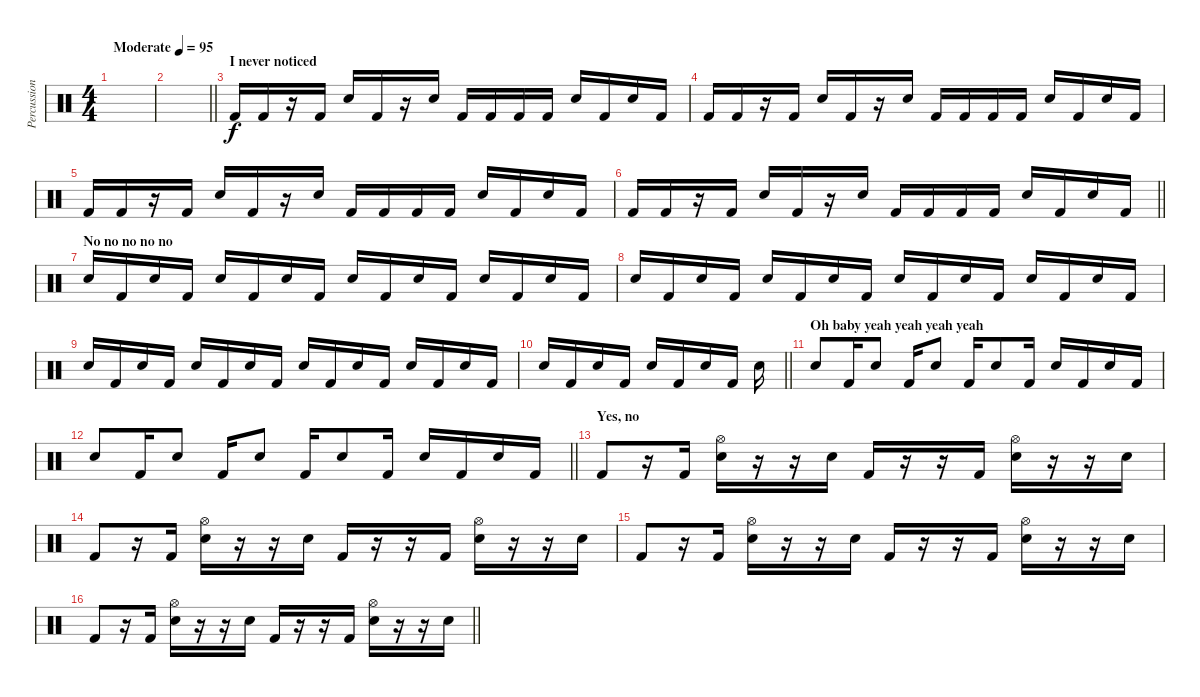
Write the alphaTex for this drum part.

\track ("Percussion" "Percussion") {instrument percussion}
\staff {score}
\articulation defaults
\ts (4 4)
\tempo (95 "Moderate")
\clef neutral
\ks c
|
\barLineRight lightlight
|
\section ("" "I never noticed")
"Kick (hit) 2".16 "Kick (hit) 2".16 r.16 "Kick (hit) 2".16 "Electric Snare (hit)".16 "Kick (hit) 2".16 r.16 "Electric Snare (hit)".16 "Kick (hit) 2".16 "Kick (hit) 2".16 "Kick (hit) 2".16 "Kick (hit) 2".16 "Electric Snare (hit)".16 "Kick (hit) 2".16 "Electric Snare (hit)".16 "Kick (hit) 2".16 |
"Kick (hit) 2".16 "Kick (hit) 2".16 r.16 "Kick (hit) 2".16 "Electric Snare (hit)".16 "Kick (hit) 2".16 r.16 "Electric Snare (hit)".16 "Kick (hit) 2".16 "Kick (hit) 2".16 "Kick (hit) 2".16 "Kick (hit) 2".16 "Electric Snare (hit)".16 "Kick (hit) 2".16 "Electric Snare (hit)".16 "Kick (hit) 2".16 |
"Kick (hit) 2".16 "Kick (hit) 2".16 r.16 "Kick (hit) 2".16 "Electric Snare (hit)".16 "Kick (hit) 2".16 r.16 "Electric Snare (hit)".16 "Kick (hit) 2".16 "Kick (hit) 2".16 "Kick (hit) 2".16 "Kick (hit) 2".16 "Electric Snare (hit)".16 "Kick (hit) 2".16 "Electric Snare (hit)".16 "Kick (hit) 2".16 |
\barLineRight lightlight "Kick (hit) 2".16 "Kick (hit) 2".16
r.16 "Kick (hit) 2".16 "Electric Snare (hit)".16 "Kick (hit) 2".16 r.16 "Electric Snare (hit)".16 "Kick (hit) 2".16 "Kick (hit) 2".16 "Kick (hit) 2".16 "Kick (hit) 2".16 "Electric Snare (hit)".16 "Kick (hit) 2".16 "Electric Snare (hit)".16 "Kick (hit) 2".16 |
\section ("" "No no no no no")
"Electric Snare (hit)".16 "Kick (hit) 2".16 "Electric Snare (hit)".16 "Kick (hit) 2".16 "Electric Snare (hit)".16 "Kick (hit) 2".16 "Electric Snare (hit)".16 "Kick (hit) 2".16 "Electric Snare (hit)".16 "Kick (hit) 2".16 "Electric Snare (hit)".16 "Kick (hit) 2".16 "Electric Snare (hit)".16 "Kick (hit) 2".16 "Electric Snare (hit)".16 "Kick (hit) 2".16 |
"Electric Snare (hit)".16 "Kick (hit) 2".16 "Electric Snare (hit)".16 "Kick (hit) 2".16 "Electric Snare (hit)".16 "Kick (hit) 2".16 "Electric Snare (hit)".16 "Kick (hit) 2".16 "Electric Snare (hit)".16 "Kick (hit) 2".16 "Electric Snare (hit)".16 "Kick (hit) 2".16 "Electric Snare (hit)".16 "Kick (hit) 2".16 "Electric Snare (hit)".16 "Kick (hit) 2".16 |
"Electric Snare (hit)".16 "Kick (hit) 2".16 "Electric Snare (hit)".16 "Kick (hit) 2".16 "Electric Snare (hit)".16 "Kick (hit) 2".16 "Electric Snare (hit)".16 "Kick (hit) 2".16 "Electric Snare (hit)".16 "Kick (hit) 2".16 "Electric Snare (hit)".16 "Kick (hit) 2".16 "Electric Snare (hit)".16 "Kick (hit) 2".16 "Electric Snare (hit)".16 "Kick (hit) 2".16 |
\barLineRight lightlight "Electric Snare (hit)".16 "Kick (hit) 2".16 "Electric Snare (hit)".16 "Kick (hit) 2".16 "Electric Snare (hit)".16 "Kick (hit) 2".16 "Electric Snare (hit)".16 "Kick (hit) 2".16 "Electric Snare (hit)".16
|
\section ("" "Oh baby yeah yeah yeah yeah")
"Electric Snare (hit)".8 "Kick (hit) 2".16 "Electric Snare (hit)".8 "Kick (hit) 2".16 "Electric Snare (hit)".8 "Kick (hit) 2".16 "Electric Snare (hit)".8 "Kick (hit) 2".16 "Electric Snare (hit)".16 "Kick (hit) 2".16 "Electric Snare (hit)".16 "Kick (hit) 2".16 |
\barLineRight lightlight "Electric Snare (hit)".8 "Kick (hit) 2".16 "Electric Snare (hit)".8 "Kick (hit) 2".16 "Electric Snare (hit)".8 "Kick (hit) 2".16 "Electric Snare (hit)".8 "Kick (hit) 2".16 "Electric Snare (hit)".16 "Kick (hit) 2".16 "Electric Snare (hit)".16 "Kick (hit) 2".16
|
\section ("" "Yes, no")
"Kick (hit) 2".8 r.16 "Kick (hit) 2".16 ("Electric Snare (hit)" "Hi-Hat (open)").16 r.16 r.16 "Electric Snare (hit)".16 "Kick (hit) 2".16 r.16 r.16 "Kick (hit) 2".16 ("Electric Snare (hit)" "Hi-Hat (open)").16 r.16 r.16 "Electric Snare (hit)".16 |
"Kick (hit) 2".8 r.16 "Kick (hit) 2".16 ("Electric Snare (hit)" "Hi-Hat (open)").16 r.16 r.16 "Electric Snare (hit)".16 "Kick (hit) 2".16 r.16 r.16 "Kick (hit) 2".16 ("Electric Snare (hit)" "Hi-Hat (open)").16 r.16 r.16 "Electric Snare (hit)".16 |
"Kick (hit) 2".8 r.16 "Kick (hit) 2".16 ("Electric Snare (hit)" "Hi-Hat (open)").16 r.16 r.16 "Electric Snare (hit)".16 "Kick (hit) 2".16 r.16 r.16 "Kick (hit) 2".16 ("Electric Snare (hit)" "Hi-Hat (open)").16 r.16 r.16 "Electric Snare (hit)".16 |
\barLineRight lightlight "Kick (hit) 2".8
r.16 "Kick (hit) 2".16 ("Electric Snare (hit)" "Hi-Hat (open)").16 r.16 r.16 "Electric Snare (hit)".16 "Kick (hit) 2".16 r.16 r.16 "Kick (hit) 2".16 ("Electric Snare (hit)" "Hi-Hat (open)").16 r.16 r.16 "Electric Snare (hit)".16
